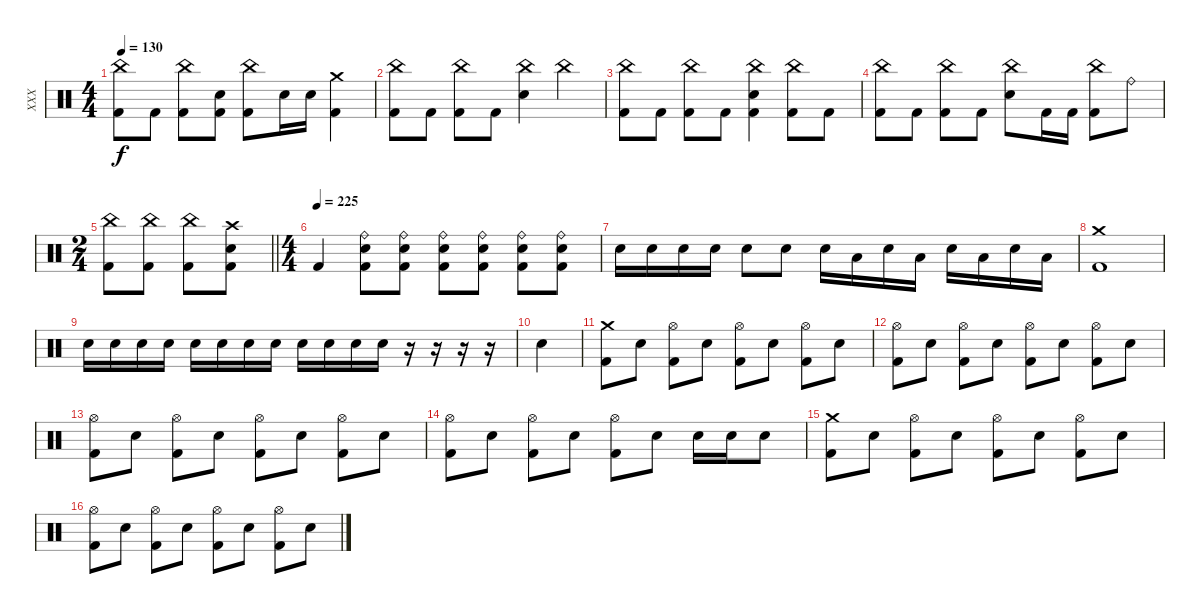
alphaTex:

\track ("XXX" "XXX") {instrument percussion}
\staff {score}
\articulation defaults
\ts (4 4)
\tempo 130
\clef neutral
\ks c
("China (hit)" "Kick (hit) 2").8{dy f} "Kick (hit) 2".8 ("China (hit)" "Kick (hit) 2").8 ("Electric Snare (hit)" "Kick (hit) 2").8 ("China (hit)" "Kick (hit) 2").8 "Electric Snare (hit)".16 "Electric Snare (hit)".16 ("Crash medium (hit)" "Kick (hit) 2").4 |
("China (hit)" "Kick (hit) 2").8 "Kick (hit) 2".8 ("China (hit)" "Kick (hit) 2").8 "Kick (hit) 2".8 ("China (hit)" "Electric Snare (hit)").4 "China (hit)".4 |
("China (hit)" "Kick (hit) 2").8 "Kick (hit) 2".8 ("China (hit)" "Kick (hit) 2").8 "Kick (hit) 2".8 ("China (hit)" "Kick (hit) 2" "Electric Snare (hit)").4 ("China (hit)" "Kick (hit) 2").8 "Kick (hit) 2".8 |
("China (hit)" "Kick (hit) 2").8 "Kick (hit) 2".8 ("China (hit)" "Kick (hit) 2").8 "Kick (hit) 2".8 ("China (hit)" "Electric Snare (hit)").8 "Kick (hit) 2".16 "Kick (hit) 2".16 ("China (hit)" "Kick (hit) 2").8 "Ride (bell)".8 |
\ts (2 4)
\barLineRight lightlight
("China (hit)" "Kick (hit) 2").8 ("China (hit)" "Kick (hit) 2").8 ("China (hit)" "Kick (hit) 2").8 ("Crash high (hit)" "Electric Snare (hit)" "Kick (hit) 2").8 |
\ts (4 4)
\tempo (225)
"Kick (hit) 2".4 ("Ride (bell)" "Electric Snare (hit)" "Kick (hit) 2").8 ("Ride (bell)" "Electric Snare (hit)" "Kick (hit) 2").8 ("Ride (bell)" "Electric Snare (hit)" "Kick (hit) 2").8 ("Ride (bell)" "Electric Snare (hit)" "Kick (hit) 2").8 ("Ride (bell)" "Electric Snare (hit)" "Kick (hit) 2").8 ("Ride (bell)" "Electric Snare (hit)" "Kick (hit) 2").8 |
"Electric Snare (hit)".16 "Electric Snare (hit)".16 "Electric Snare (hit)".16 "Electric Snare (hit)".16 "Electric Snare (hit)".8 "Electric Snare (hit)".8 "Electric Snare (hit)".16 "Low Tom (hit)".16 "Electric Snare (hit)".16 "Low Tom (hit)".16 "Electric Snare (hit)".16 "Low Tom (hit)".16 "Electric Snare (hit)".16 "Low Tom (hit)".16 |
("Crash medium (hit)" "Kick (hit) 2").1 |
"Electric Snare (hit)".16 "Electric Snare (hit)".16 "Electric Snare (hit)".16 "Electric Snare (hit)".16 "Electric Snare (hit)".16 "Electric Snare (hit)".16 "Electric Snare (hit)".16 "Electric Snare (hit)".16 "Electric Snare (hit)".16 "Electric Snare (hit)".16 "Electric Snare (hit)".16 "Electric Snare (hit)".16 r.16 r.16 r.16 r.16 |
"Electric Snare (hit)".4 |
("Crash medium (hit)" "Kick (hit) 2").8 "Electric Snare (hit)".8 ("Hi-Hat (open)" "Kick (hit) 2").8 "Electric Snare (hit)".8 ("Hi-Hat (open)" "Kick (hit) 2").8 "Electric Snare (hit)".8 ("Hi-Hat (open)" "Kick (hit) 2").8 "Electric Snare (hit)".8 |
("Hi-Hat (open)" "Kick (hit) 2").8 "Electric Snare (hit)".8 ("Hi-Hat (open)" "Kick (hit) 2").8 "Electric Snare (hit)".8 ("Hi-Hat (open)" "Kick (hit) 2").8 "Electric Snare (hit)".8 ("Hi-Hat (open)" "Kick (hit) 2").8 "Electric Snare (hit)".8 |
("Hi-Hat (open)" "Kick (hit) 2").8 "Electric Snare (hit)".8 ("Hi-Hat (open)" "Kick (hit) 2").8 "Electric Snare (hit)".8 ("Hi-Hat (open)" "Kick (hit) 2").8 "Electric Snare (hit)".8 ("Hi-Hat (open)" "Kick (hit) 2").8 "Electric Snare (hit)".8 |
("Hi-Hat (open)" "Kick (hit) 2").8 "Electric Snare (hit)".8 ("Hi-Hat (open)" "Kick (hit) 2").8 "Electric Snare (hit)".8 ("Hi-Hat (open)" "Kick (hit) 2").8 "Electric Snare (hit)".8 "Electric Snare (hit)".16 "Electric Snare (hit)".16 "Electric Snare (hit)".8 |
("Crash medium (hit)" "Kick (hit) 2").8 "Electric Snare (hit)".8 ("Hi-Hat (open)" "Kick (hit) 2").8 "Electric Snare (hit)".8 ("Hi-Hat (open)" "Kick (hit) 2").8 "Electric Snare (hit)".8 ("Hi-Hat (open)" "Kick (hit) 2").8 "Electric Snare (hit)".8 |
("Hi-Hat (open)" "Kick (hit) 2").8 "Electric Snare (hit)".8 ("Hi-Hat (open)" "Kick (hit) 2").8 "Electric Snare (hit)".8 ("Hi-Hat (open)" "Kick (hit) 2").8 "Electric Snare (hit)".8 ("Hi-Hat (open)" "Kick (hit) 2").8 "Electric Snare (hit)".8
